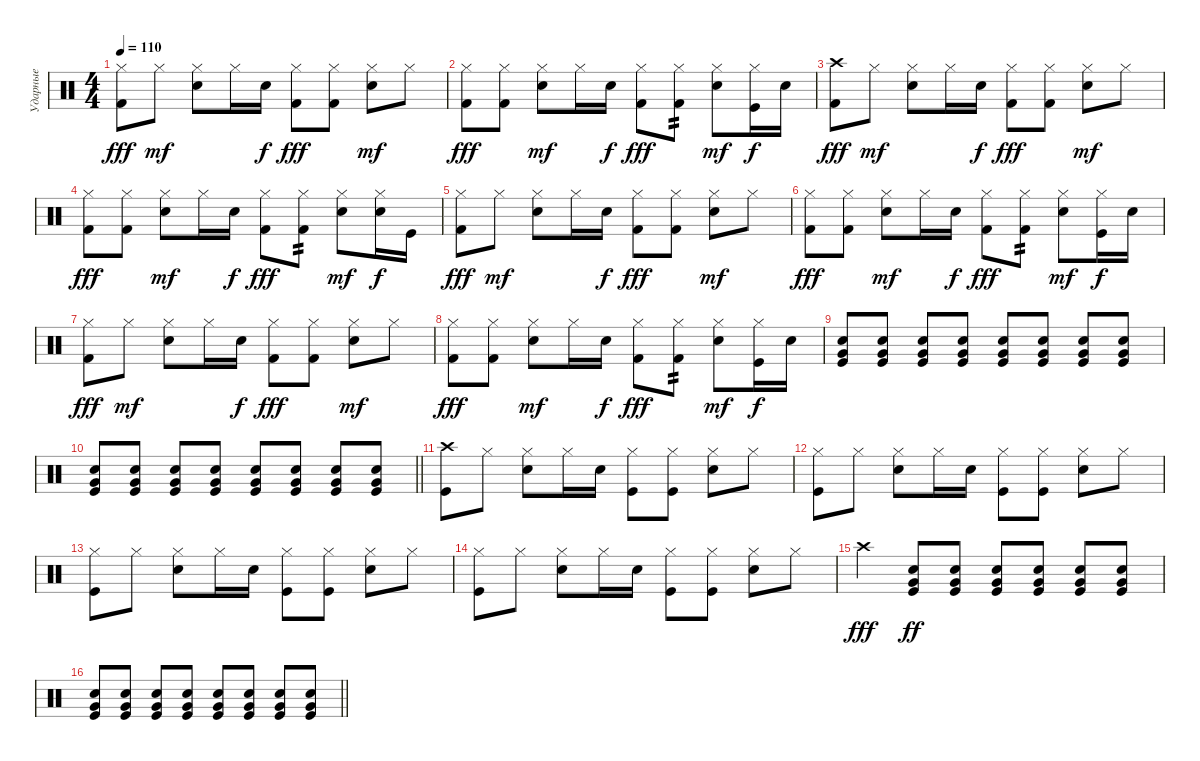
\track ("Ударные" "Ударные") {instrument percussion}
\staff {score}
\articulation defaults
\ts (4 4)
\tempo 110
\clef neutral
\ks c
("Hi-Hat (closed)" "Kick (hit) 2").8{dy fff} "Hi-Hat (closed)".8{dy mf} ("Hi-Hat (closed)" "Snare (hit) 2").8 "Hi-Hat (closed)".16 "Snare (hit) 2".16{dy f} ("Hi-Hat (closed)" "Kick (hit) 2").8{dy fff} ("Hi-Hat (closed)" "Kick (hit) 2").8 ("Hi-Hat (closed)" "Snare (hit) 2").8{dy mf} "Hi-Hat (closed)".8 |
("Hi-Hat (closed)" "Kick (hit) 2").8{dy fff} ("Hi-Hat (closed)" "Kick (hit) 2").8 ("Hi-Hat (closed)" "Snare (hit) 2").8{dy mf} "Hi-Hat (closed)".16 "Snare (hit) 2".16{dy f} ("Hi-Hat (closed)" "Kick (hit) 2").8{dy fff} ("Hi-Hat (closed)" "Kick (hit) 2").8{tp 2} ("Hi-Hat (closed)" "Snare (hit) 2").8{dy mf} ("Kick (hit)" "Hi-Hat (closed)").16{dy f} "Snare (hit) 2".16 |
("Crash high (hit)" "Kick (hit) 2").8{dy fff} "Hi-Hat (closed)".8{dy mf} ("Hi-Hat (closed)" "Snare (hit) 2").8 "Hi-Hat (closed)".16 "Snare (hit) 2".16{dy f} ("Hi-Hat (closed)" "Kick (hit) 2").8{dy fff} ("Hi-Hat (closed)" "Kick (hit) 2").8 ("Hi-Hat (closed)" "Snare (hit) 2").8{dy mf} "Hi-Hat (closed)".8 |
("Hi-Hat (closed)" "Kick (hit) 2").8{dy fff} ("Hi-Hat (closed)" "Kick (hit) 2").8 ("Hi-Hat (closed)" "Snare (hit) 2").8{dy mf} "Hi-Hat (closed)".16 "Snare (hit) 2".16{dy f} ("Hi-Hat (closed)" "Kick (hit) 2").8{dy fff} ("Hi-Hat (closed)" "Kick (hit) 2").8{tp 2} ("Hi-Hat (closed)" "Snare (hit) 2").8{dy mf} ("Snare (hit) 2" "Hi-Hat (closed)").16{dy f} "Kick (hit)".16 |
("Hi-Hat (closed)" "Kick (hit) 2").8{dy fff} "Hi-Hat (closed)".8{dy mf} ("Hi-Hat (closed)" "Snare (hit) 2").8 "Hi-Hat (closed)".16 "Snare (hit) 2".16{dy f} ("Hi-Hat (closed)" "Kick (hit) 2").8{dy fff} ("Hi-Hat (closed)" "Kick (hit) 2").8 ("Hi-Hat (closed)" "Snare (hit) 2").8{dy mf} "Hi-Hat (closed)".8 |
("Hi-Hat (closed)" "Kick (hit) 2").8{dy fff} ("Hi-Hat (closed)" "Kick (hit) 2").8 ("Hi-Hat (closed)" "Snare (hit) 2").8{dy mf} "Hi-Hat (closed)".16 "Snare (hit) 2".16{dy f} ("Hi-Hat (closed)" "Kick (hit) 2").8{dy fff} ("Hi-Hat (closed)" "Kick (hit) 2").8{tp 2} ("Hi-Hat (closed)" "Snare (hit) 2").8{dy mf} ("Kick (hit)" "Hi-Hat (closed)").16{dy f} "Snare (hit) 2".16 |
("Hi-Hat (closed)" "Kick (hit) 2").8{dy fff} "Hi-Hat (closed)".8{dy mf} ("Hi-Hat (closed)" "Snare (hit) 2").8 "Hi-Hat (closed)".16 "Snare (hit) 2".16{dy f} ("Hi-Hat (closed)" "Kick (hit) 2").8{dy fff} ("Hi-Hat (closed)" "Kick (hit) 2").8 ("Hi-Hat (closed)" "Snare (hit) 2").8{dy mf} "Hi-Hat (closed)".8 |
("Hi-Hat (closed)" "Kick (hit) 2").8{dy fff} ("Hi-Hat (closed)" "Kick (hit) 2").8 ("Hi-Hat (closed)" "Snare (hit) 2").8{dy mf} "Hi-Hat (closed)".16 "Snare (hit) 2".16{dy f} ("Hi-Hat (closed)" "Kick (hit) 2").8{dy fff} ("Hi-Hat (closed)" "Kick (hit) 2").8{tp 2} ("Hi-Hat (closed)" "Snare (hit) 2").8{dy mf} ("Kick (hit)" "Hi-Hat (closed)").16{dy f} "Snare (hit) 2".16 |
("Kick (hit)" "Snare (hit) 2" "Very Low Tom (hit)").8 ("Kick (hit)" "Snare (hit) 2" "Very Low Tom (hit)").8 ("Kick (hit)" "Snare (hit) 2" "Very Low Tom (hit)").8 ("Kick (hit)" "Snare (hit) 2" "Very Low Tom (hit)").8 ("Kick (hit)" "Snare (hit) 2" "Very Low Tom (hit)").8 ("Kick (hit)" "Snare (hit) 2" "Very Low Tom (hit)").8 ("Kick (hit)" "Snare (hit) 2" "Very Low Tom (hit)").8 ("Kick (hit)" "Snare (hit) 2" "Very Low Tom (hit)").8 |
\barLineRight lightlight
("Kick (hit)" "Snare (hit) 2" "Very Low Tom (hit)").8 ("Kick (hit)" "Snare (hit) 2" "Very Low Tom (hit)").8 ("Kick (hit)" "Snare (hit) 2" "Very Low Tom (hit)").8 ("Kick (hit)" "Snare (hit) 2" "Very Low Tom (hit)").8 ("Kick (hit)" "Snare (hit) 2" "Very Low Tom (hit)").8 ("Kick (hit)" "Snare (hit) 2" "Very Low Tom (hit)").8 ("Kick (hit)" "Snare (hit) 2" "Very Low Tom (hit)").8 ("Kick (hit)" "Snare (hit) 2" "Very Low Tom (hit)").8 |
("Crash high (hit)" "Kick (hit)").8 "Hi-Hat (closed)".8 ("Hi-Hat (closed)" "Snare (hit) 2").8 "Hi-Hat (closed)".16 "Snare (hit) 2".16 ("Hi-Hat (closed)" "Kick (hit)").8 ("Hi-Hat (closed)" "Kick (hit)").8 ("Hi-Hat (closed)" "Snare (hit) 2").8 "Hi-Hat (closed)".8 |
("Hi-Hat (closed)" "Kick (hit)").8 "Hi-Hat (closed)".8 ("Hi-Hat (closed)" "Snare (hit) 2").8 "Hi-Hat (closed)".16 "Snare (hit) 2".16 ("Hi-Hat (closed)" "Kick (hit)").8 ("Hi-Hat (closed)" "Kick (hit)").8 ("Hi-Hat (closed)" "Snare (hit) 2").8 "Hi-Hat (closed)".8 |
("Hi-Hat (closed)" "Kick (hit)").8 "Hi-Hat (closed)".8 ("Hi-Hat (closed)" "Snare (hit) 2").8 "Hi-Hat (closed)".16 "Snare (hit) 2".16 ("Hi-Hat (closed)" "Kick (hit)").8 ("Hi-Hat (closed)" "Kick (hit)").8 ("Hi-Hat (closed)" "Snare (hit) 2").8 "Hi-Hat (closed)".8 |
("Hi-Hat (closed)" "Kick (hit)").8 "Hi-Hat (closed)".8 ("Hi-Hat (closed)" "Snare (hit) 2").8 "Hi-Hat (closed)".16 "Snare (hit) 2".16 ("Hi-Hat (closed)" "Kick (hit)").8 ("Hi-Hat (closed)" "Kick (hit)").8 ("Hi-Hat (closed)" "Snare (hit) 2").8 "Hi-Hat (closed)".8 |
"Crash high (hit)".4{dy fff} ("Very Low Tom (hit)" "Snare (hit) 2" "Kick (hit)").8{dy ff volume 2} ("Very Low Tom (hit)" "Snare (hit) 2" "Kick (hit)").8{volume 13} ("Very Low Tom (hit)" "Snare (hit) 2" "Kick (hit)").8 ("Very Low Tom (hit)" "Snare (hit) 2" "Kick (hit)").8 ("Very Low Tom (hit)" "Snare (hit) 2" "Kick (hit)").8 ("Very Low Tom (hit)" "Snare (hit) 2" "Kick (hit)").8 |
\barLineRight lightlight
("Very Low Tom (hit)" "Snare (hit) 2" "Kick (hit)").8 ("Very Low Tom (hit)" "Snare (hit) 2" "Kick (hit)").8 ("Very Low Tom (hit)" "Snare (hit) 2" "Kick (hit)").8 ("Very Low Tom (hit)" "Snare (hit) 2" "Kick (hit)").8 ("Very Low Tom (hit)" "Snare (hit) 2" "Kick (hit)").8 ("Very Low Tom (hit)" "Snare (hit) 2" "Kick (hit)").8 ("Very Low Tom (hit)" "Snare (hit) 2" "Kick (hit)").8 ("Very Low Tom (hit)" "Snare (hit) 2" "Kick (hit)").8
